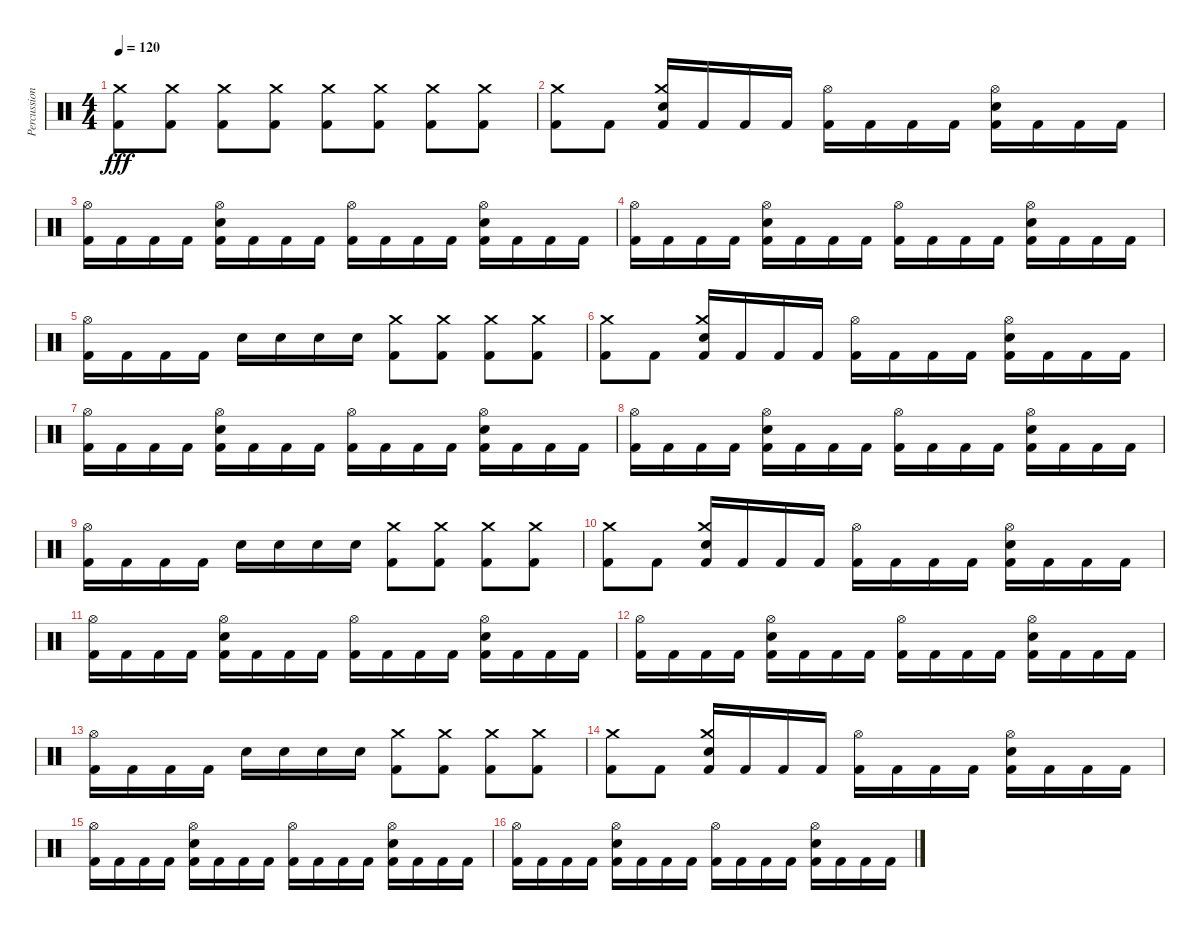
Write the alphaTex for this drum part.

\track ("Percussion" "Percussion") {instrument percussion}
\staff {score}
\articulation defaults
\ts (4 4)
\tempo 120
\clef neutral
\ks c
("Kick (hit) 2" "Crash medium (hit)").8{dy fff} ("Kick (hit) 2" "Crash medium (hit)").8 ("Kick (hit) 2" "Crash medium (hit)").8 ("Kick (hit) 2" "Crash medium (hit)").8 ("Kick (hit) 2" "Crash medium (hit)").8 ("Kick (hit) 2" "Crash medium (hit)").8 ("Kick (hit) 2" "Crash medium (hit)").8 ("Kick (hit) 2" "Crash medium (hit)").8 |
("Kick (hit) 2" "Crash medium (hit)").8 "Kick (hit) 2".8 ("Kick (hit) 2" "Electric Snare (hit)" "Crash medium (hit)").16 "Kick (hit) 2".16 "Kick (hit) 2".16 "Kick (hit) 2".16 ("Kick (hit) 2" "Hi-Hat (open)").16 "Kick (hit) 2".16 "Kick (hit) 2".16 "Kick (hit) 2".16 ("Kick (hit) 2" "Electric Snare (hit)" "Hi-Hat (open)").16 "Kick (hit) 2".16 "Kick (hit) 2".16 "Kick (hit) 2".16 |
("Kick (hit) 2" "Hi-Hat (open)").16 "Kick (hit) 2".16 "Kick (hit) 2".16 "Kick (hit) 2".16 ("Kick (hit) 2" "Electric Snare (hit)" "Hi-Hat (open)").16 "Kick (hit) 2".16 "Kick (hit) 2".16 "Kick (hit) 2".16 ("Kick (hit) 2" "Hi-Hat (open)").16 "Kick (hit) 2".16 "Kick (hit) 2".16 "Kick (hit) 2".16 ("Kick (hit) 2" "Electric Snare (hit)" "Hi-Hat (open)").16 "Kick (hit) 2".16 "Kick (hit) 2".16 "Kick (hit) 2".16 |
("Kick (hit) 2" "Hi-Hat (open)").16 "Kick (hit) 2".16 "Kick (hit) 2".16 "Kick (hit) 2".16 ("Kick (hit) 2" "Electric Snare (hit)" "Hi-Hat (open)").16 "Kick (hit) 2".16 "Kick (hit) 2".16 "Kick (hit) 2".16 ("Kick (hit) 2" "Hi-Hat (open)").16 "Kick (hit) 2".16 "Kick (hit) 2".16 "Kick (hit) 2".16 ("Kick (hit) 2" "Electric Snare (hit)" "Hi-Hat (open)").16 "Kick (hit) 2".16 "Kick (hit) 2".16 "Kick (hit) 2".16 |
("Kick (hit) 2" "Hi-Hat (open)").16 "Kick (hit) 2".16 "Kick (hit) 2".16 "Kick (hit) 2".16 "Electric Snare (hit)".16 "Electric Snare (hit)".16 "Electric Snare (hit)".16 "Electric Snare (hit)".16 ("Kick (hit) 2" "Crash medium (hit)").8 ("Kick (hit) 2" "Crash medium (hit)").8 ("Kick (hit) 2" "Crash medium (hit)").8 ("Kick (hit) 2" "Crash medium (hit)").8 |
("Kick (hit) 2" "Crash medium (hit)").8 "Kick (hit) 2".8 ("Kick (hit) 2" "Electric Snare (hit)" "Crash medium (hit)").16 "Kick (hit) 2".16 "Kick (hit) 2".16 "Kick (hit) 2".16 ("Kick (hit) 2" "Hi-Hat (open)").16 "Kick (hit) 2".16 "Kick (hit) 2".16 "Kick (hit) 2".16 ("Kick (hit) 2" "Electric Snare (hit)" "Hi-Hat (open)").16 "Kick (hit) 2".16 "Kick (hit) 2".16 "Kick (hit) 2".16 |
("Kick (hit) 2" "Hi-Hat (open)").16 "Kick (hit) 2".16 "Kick (hit) 2".16 "Kick (hit) 2".16 ("Kick (hit) 2" "Electric Snare (hit)" "Hi-Hat (open)").16 "Kick (hit) 2".16 "Kick (hit) 2".16 "Kick (hit) 2".16 ("Kick (hit) 2" "Hi-Hat (open)").16 "Kick (hit) 2".16 "Kick (hit) 2".16 "Kick (hit) 2".16 ("Kick (hit) 2" "Electric Snare (hit)" "Hi-Hat (open)").16 "Kick (hit) 2".16 "Kick (hit) 2".16 "Kick (hit) 2".16 |
("Kick (hit) 2" "Hi-Hat (open)").16 "Kick (hit) 2".16 "Kick (hit) 2".16 "Kick (hit) 2".16 ("Kick (hit) 2" "Electric Snare (hit)" "Hi-Hat (open)").16 "Kick (hit) 2".16 "Kick (hit) 2".16 "Kick (hit) 2".16 ("Kick (hit) 2" "Hi-Hat (open)").16 "Kick (hit) 2".16 "Kick (hit) 2".16 "Kick (hit) 2".16 ("Kick (hit) 2" "Electric Snare (hit)" "Hi-Hat (open)").16 "Kick (hit) 2".16 "Kick (hit) 2".16 "Kick (hit) 2".16 |
("Kick (hit) 2" "Hi-Hat (open)").16 "Kick (hit) 2".16 "Kick (hit) 2".16 "Kick (hit) 2".16 "Electric Snare (hit)".16 "Electric Snare (hit)".16 "Electric Snare (hit)".16 "Electric Snare (hit)".16 ("Kick (hit) 2" "Crash medium (hit)").8 ("Kick (hit) 2" "Crash medium (hit)").8 ("Kick (hit) 2" "Crash medium (hit)").8 ("Kick (hit) 2" "Crash medium (hit)").8 |
("Kick (hit) 2" "Crash medium (hit)").8 "Kick (hit) 2".8 ("Kick (hit) 2" "Electric Snare (hit)" "Crash medium (hit)").16 "Kick (hit) 2".16 "Kick (hit) 2".16 "Kick (hit) 2".16 ("Kick (hit) 2" "Hi-Hat (open)").16 "Kick (hit) 2".16 "Kick (hit) 2".16 "Kick (hit) 2".16 ("Kick (hit) 2" "Electric Snare (hit)" "Hi-Hat (open)").16 "Kick (hit) 2".16 "Kick (hit) 2".16 "Kick (hit) 2".16 |
("Kick (hit) 2" "Hi-Hat (open)").16 "Kick (hit) 2".16 "Kick (hit) 2".16 "Kick (hit) 2".16 ("Kick (hit) 2" "Electric Snare (hit)" "Hi-Hat (open)").16 "Kick (hit) 2".16 "Kick (hit) 2".16 "Kick (hit) 2".16 ("Kick (hit) 2" "Hi-Hat (open)").16 "Kick (hit) 2".16 "Kick (hit) 2".16 "Kick (hit) 2".16 ("Kick (hit) 2" "Electric Snare (hit)" "Hi-Hat (open)").16 "Kick (hit) 2".16 "Kick (hit) 2".16 "Kick (hit) 2".16 |
("Kick (hit) 2" "Hi-Hat (open)").16 "Kick (hit) 2".16 "Kick (hit) 2".16 "Kick (hit) 2".16 ("Kick (hit) 2" "Electric Snare (hit)" "Hi-Hat (open)").16 "Kick (hit) 2".16 "Kick (hit) 2".16 "Kick (hit) 2".16 ("Kick (hit) 2" "Hi-Hat (open)").16 "Kick (hit) 2".16 "Kick (hit) 2".16 "Kick (hit) 2".16 ("Kick (hit) 2" "Electric Snare (hit)" "Hi-Hat (open)").16 "Kick (hit) 2".16 "Kick (hit) 2".16 "Kick (hit) 2".16 |
("Kick (hit) 2" "Hi-Hat (open)").16 "Kick (hit) 2".16 "Kick (hit) 2".16 "Kick (hit) 2".16 "Electric Snare (hit)".16 "Electric Snare (hit)".16 "Electric Snare (hit)".16 "Electric Snare (hit)".16 ("Kick (hit) 2" "Crash medium (hit)").8 ("Kick (hit) 2" "Crash medium (hit)").8 ("Kick (hit) 2" "Crash medium (hit)").8 ("Kick (hit) 2" "Crash medium (hit)").8 |
("Kick (hit) 2" "Crash medium (hit)").8 "Kick (hit) 2".8 ("Kick (hit) 2" "Electric Snare (hit)" "Crash medium (hit)").16 "Kick (hit) 2".16 "Kick (hit) 2".16 "Kick (hit) 2".16 ("Kick (hit) 2" "Hi-Hat (open)").16 "Kick (hit) 2".16 "Kick (hit) 2".16 "Kick (hit) 2".16 ("Kick (hit) 2" "Electric Snare (hit)" "Hi-Hat (open)").16 "Kick (hit) 2".16 "Kick (hit) 2".16 "Kick (hit) 2".16 |
("Kick (hit) 2" "Hi-Hat (open)").16 "Kick (hit) 2".16 "Kick (hit) 2".16 "Kick (hit) 2".16 ("Kick (hit) 2" "Electric Snare (hit)" "Hi-Hat (open)").16 "Kick (hit) 2".16 "Kick (hit) 2".16 "Kick (hit) 2".16 ("Kick (hit) 2" "Hi-Hat (open)").16 "Kick (hit) 2".16 "Kick (hit) 2".16 "Kick (hit) 2".16 ("Kick (hit) 2" "Electric Snare (hit)" "Hi-Hat (open)").16 "Kick (hit) 2".16 "Kick (hit) 2".16 "Kick (hit) 2".16 |
("Kick (hit) 2" "Hi-Hat (open)").16 "Kick (hit) 2".16 "Kick (hit) 2".16 "Kick (hit) 2".16 ("Kick (hit) 2" "Electric Snare (hit)" "Hi-Hat (open)").16 "Kick (hit) 2".16 "Kick (hit) 2".16 "Kick (hit) 2".16 ("Kick (hit) 2" "Hi-Hat (open)").16 "Kick (hit) 2".16 "Kick (hit) 2".16 "Kick (hit) 2".16 ("Kick (hit) 2" "Electric Snare (hit)" "Hi-Hat (open)").16 "Kick (hit) 2".16 "Kick (hit) 2".16 "Kick (hit) 2".16
